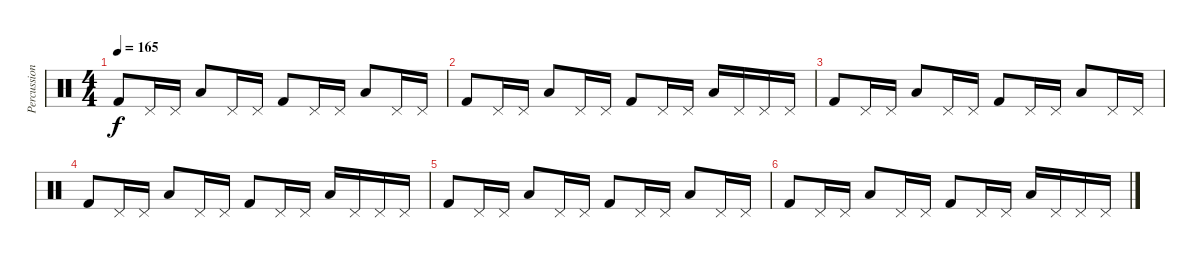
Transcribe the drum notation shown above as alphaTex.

\track ("Percussions" "Percussion") {instrument percussion}
\staff {score}
\articulation defaults
\ts (4 4)
\tempo 165
\clef neutral
\ks c "Kick (hit) 2".8{dy f} "Pedal Hi-Hat (hit)".16 "Pedal Hi-Hat (hit)".16 "Low Floor Tom (hit)".8 "Pedal Hi-Hat (hit)".16 "Pedal Hi-Hat (hit)".16 "Kick (hit) 2".8 "Pedal Hi-Hat (hit)".16 "Pedal Hi-Hat (hit)".16 "Low Floor Tom (hit)".8 "Pedal Hi-Hat (hit)".16 "Pedal Hi-Hat (hit)".16
|
"Kick (hit) 2".8 "Pedal Hi-Hat (hit)".16 "Pedal Hi-Hat (hit)".16 "Low Floor Tom (hit)".8 "Pedal Hi-Hat (hit)".16 "Pedal Hi-Hat (hit)".16 "Kick (hit) 2".8 "Pedal Hi-Hat (hit)".16 "Pedal Hi-Hat (hit)".16 "Low Floor Tom (hit)".16 "Pedal Hi-Hat (hit)".16 "Pedal Hi-Hat (hit)".16 "Pedal Hi-Hat (hit)".16 |
"Kick (hit) 2".8 "Pedal Hi-Hat (hit)".16 "Pedal Hi-Hat (hit)".16 "Low Floor Tom (hit)".8 "Pedal Hi-Hat (hit)".16 "Pedal Hi-Hat (hit)".16 "Kick (hit) 2".8 "Pedal Hi-Hat (hit)".16 "Pedal Hi-Hat (hit)".16 "Low Floor Tom (hit)".8 "Pedal Hi-Hat (hit)".16 "Pedal Hi-Hat (hit)".16 |
"Kick (hit) 2".8 "Pedal Hi-Hat (hit)".16 "Pedal Hi-Hat (hit)".16 "Low Floor Tom (hit)".8 "Pedal Hi-Hat (hit)".16 "Pedal Hi-Hat (hit)".16 "Kick (hit) 2".8 "Pedal Hi-Hat (hit)".16 "Pedal Hi-Hat (hit)".16 "Low Floor Tom (hit)".16 "Pedal Hi-Hat (hit)".16 "Pedal Hi-Hat (hit)".16 "Pedal Hi-Hat (hit)".16 |
"Kick (hit) 2".8 "Pedal Hi-Hat (hit)".16 "Pedal Hi-Hat (hit)".16 "Low Floor Tom (hit)".8 "Pedal Hi-Hat (hit)".16 "Pedal Hi-Hat (hit)".16 "Kick (hit) 2".8 "Pedal Hi-Hat (hit)".16 "Pedal Hi-Hat (hit)".16 "Low Floor Tom (hit)".8 "Pedal Hi-Hat (hit)".16 "Pedal Hi-Hat (hit)".16 |
"Kick (hit) 2".8 "Pedal Hi-Hat (hit)".16 "Pedal Hi-Hat (hit)".16 "Low Floor Tom (hit)".8 "Pedal Hi-Hat (hit)".16 "Pedal Hi-Hat (hit)".16 "Kick (hit) 2".8 "Pedal Hi-Hat (hit)".16 "Pedal Hi-Hat (hit)".16 "Low Floor Tom (hit)".16 "Pedal Hi-Hat (hit)".16 "Pedal Hi-Hat (hit)".16 "Pedal Hi-Hat (hit)".16
